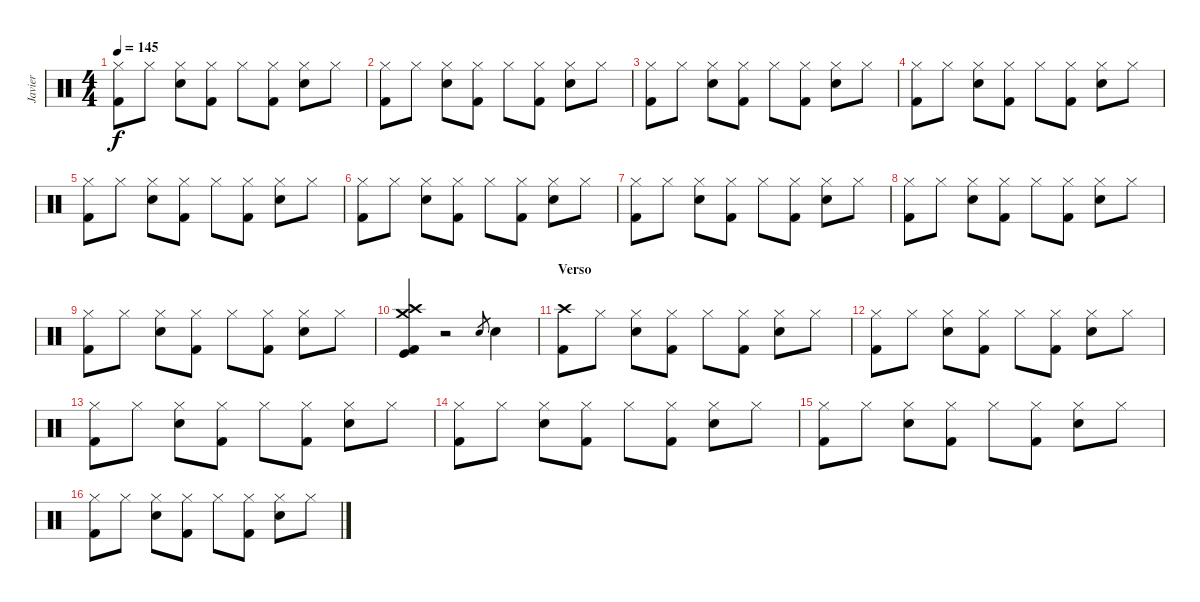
\track ("Javier" "Javier") {instrument percussion}
\staff {score}
\articulation defaults
\ts (4 4)
\tempo 145
\clef neutral
\ks c
("Hi-Hat (closed)" "Kick (hit) 2").8{dy f} "Hi-Hat (closed)".8 ("Hi-Hat (closed)" "Snare (hit) 2").8 ("Hi-Hat (closed)" "Kick (hit) 2").8 "Hi-Hat (closed)".8 ("Hi-Hat (closed)" "Kick (hit) 2").8 ("Hi-Hat (closed)" "Snare (hit) 2").8 "Hi-Hat (closed)".8 |
("Hi-Hat (closed)" "Kick (hit) 2").8 "Hi-Hat (closed)".8 ("Hi-Hat (closed)" "Snare (hit) 2").8 ("Hi-Hat (closed)" "Kick (hit) 2").8 "Hi-Hat (closed)".8 ("Hi-Hat (closed)" "Kick (hit) 2").8 ("Hi-Hat (closed)" "Snare (hit) 2").8 "Hi-Hat (closed)".8 |
("Hi-Hat (closed)" "Kick (hit) 2").8 "Hi-Hat (closed)".8 ("Hi-Hat (closed)" "Snare (hit) 2").8 ("Hi-Hat (closed)" "Kick (hit) 2").8 "Hi-Hat (closed)".8 ("Hi-Hat (closed)" "Kick (hit) 2").8 ("Hi-Hat (closed)" "Snare (hit) 2").8 "Hi-Hat (closed)".8 |
("Hi-Hat (closed)" "Kick (hit) 2").8 "Hi-Hat (closed)".8 ("Hi-Hat (closed)" "Snare (hit) 2").8 ("Hi-Hat (closed)" "Kick (hit) 2").8 "Hi-Hat (closed)".8 ("Hi-Hat (closed)" "Kick (hit) 2").8 ("Hi-Hat (closed)" "Snare (hit) 2").8 "Hi-Hat (closed)".8 |
("Hi-Hat (closed)" "Kick (hit) 2").8 "Hi-Hat (closed)".8 ("Hi-Hat (closed)" "Snare (hit) 2").8 ("Hi-Hat (closed)" "Kick (hit) 2").8 "Hi-Hat (closed)".8 ("Hi-Hat (closed)" "Kick (hit) 2").8 ("Hi-Hat (closed)" "Snare (hit) 2").8 "Hi-Hat (closed)".8 |
("Hi-Hat (closed)" "Kick (hit) 2").8 "Hi-Hat (closed)".8 ("Hi-Hat (closed)" "Snare (hit) 2").8 ("Hi-Hat (closed)" "Kick (hit) 2").8 "Hi-Hat (closed)".8 ("Hi-Hat (closed)" "Kick (hit) 2").8 ("Hi-Hat (closed)" "Snare (hit) 2").8 "Hi-Hat (closed)".8 |
("Hi-Hat (closed)" "Kick (hit) 2").8 "Hi-Hat (closed)".8 ("Hi-Hat (closed)" "Snare (hit) 2").8 ("Hi-Hat (closed)" "Kick (hit) 2").8 "Hi-Hat (closed)".8 ("Hi-Hat (closed)" "Kick (hit) 2").8 ("Hi-Hat (closed)" "Snare (hit) 2").8 "Hi-Hat (closed)".8 |
("Hi-Hat (closed)" "Kick (hit) 2").8 "Hi-Hat (closed)".8 ("Hi-Hat (closed)" "Snare (hit) 2").8 ("Hi-Hat (closed)" "Kick (hit) 2").8 "Hi-Hat (closed)".8 ("Hi-Hat (closed)" "Kick (hit) 2").8 ("Hi-Hat (closed)" "Snare (hit) 2").8 "Hi-Hat (closed)".8 |
("Hi-Hat (closed)" "Kick (hit) 2").8 "Hi-Hat (closed)".8 ("Hi-Hat (closed)" "Snare (hit) 2").8 ("Hi-Hat (closed)" "Kick (hit) 2").8 "Hi-Hat (closed)".8 ("Hi-Hat (closed)" "Kick (hit) 2").8 ("Hi-Hat (closed)" "Snare (hit) 2").8 "Hi-Hat (closed)".8 |
("Crash high (hit)" "Kick (hit) 2" "Crash medium (hit)" "Kick (hit)").4 r.2 "Snare (hit) 2".8{gr} "Snare (hit) 2".4 |
\section ("" "Verso")
("Crash high (hit)" "Kick (hit) 2").8 "Hi-Hat (closed)".8 ("Hi-Hat (closed)" "Snare (hit) 2").8 ("Hi-Hat (closed)" "Kick (hit) 2").8 "Hi-Hat (closed)".8 ("Hi-Hat (closed)" "Kick (hit) 2").8 ("Hi-Hat (closed)" "Snare (hit) 2").8 "Hi-Hat (closed)".8 |
("Hi-Hat (closed)" "Kick (hit) 2").8 "Hi-Hat (closed)".8 ("Hi-Hat (closed)" "Snare (hit) 2").8 ("Hi-Hat (closed)" "Kick (hit) 2").8 "Hi-Hat (closed)".8 ("Hi-Hat (closed)" "Kick (hit) 2").8 ("Hi-Hat (closed)" "Snare (hit) 2").8 "Hi-Hat (closed)".8 |
("Hi-Hat (closed)" "Kick (hit) 2").8 "Hi-Hat (closed)".8 ("Hi-Hat (closed)" "Snare (hit) 2").8 ("Hi-Hat (closed)" "Kick (hit) 2").8 "Hi-Hat (closed)".8 ("Hi-Hat (closed)" "Kick (hit) 2").8 ("Hi-Hat (closed)" "Snare (hit) 2").8 "Hi-Hat (closed)".8 |
("Hi-Hat (closed)" "Kick (hit) 2").8 "Hi-Hat (closed)".8 ("Hi-Hat (closed)" "Snare (hit) 2").8 ("Hi-Hat (closed)" "Kick (hit) 2").8 "Hi-Hat (closed)".8 ("Hi-Hat (closed)" "Kick (hit) 2").8 ("Hi-Hat (closed)" "Snare (hit) 2").8 "Hi-Hat (closed)".8 |
("Hi-Hat (closed)" "Kick (hit) 2").8 "Hi-Hat (closed)".8 ("Hi-Hat (closed)" "Snare (hit) 2").8 ("Hi-Hat (closed)" "Kick (hit) 2").8 "Hi-Hat (closed)".8 ("Hi-Hat (closed)" "Kick (hit) 2").8 ("Hi-Hat (closed)" "Snare (hit) 2").8 "Hi-Hat (closed)".8 |
("Hi-Hat (closed)" "Kick (hit) 2").8 "Hi-Hat (closed)".8 ("Hi-Hat (closed)" "Snare (hit) 2").8 ("Hi-Hat (closed)" "Kick (hit) 2").8 "Hi-Hat (closed)".8 ("Hi-Hat (closed)" "Kick (hit) 2").8 ("Hi-Hat (closed)" "Snare (hit) 2").8 "Hi-Hat (closed)".8
